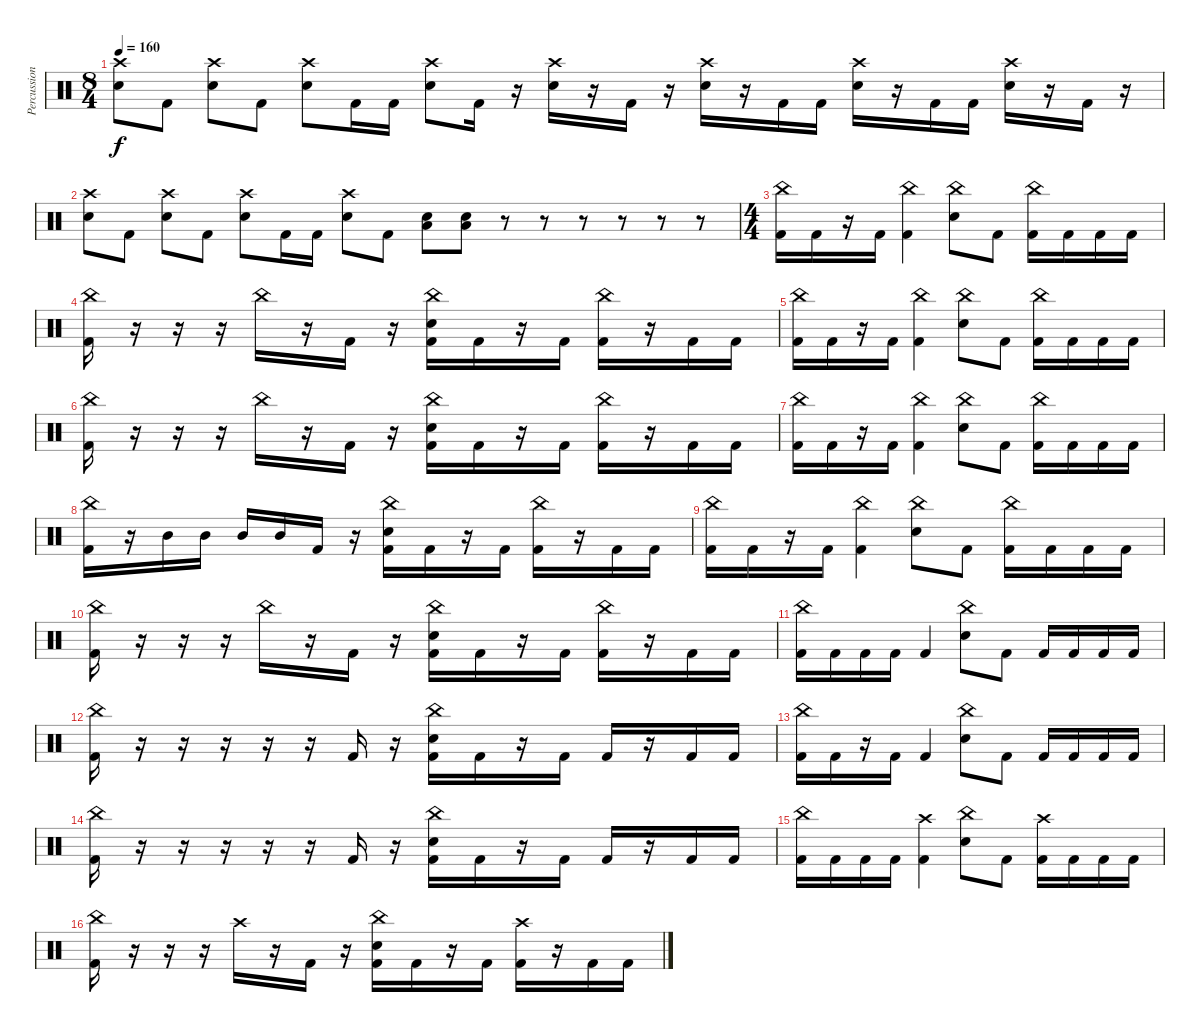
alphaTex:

\track ("Percussion" "Percussion") {instrument percussion}
\staff {score}
\articulation defaults
\ts (8 4)
\tempo 160
\clef neutral
\ks c
("Crash high (hit)" "Electric Snare (hit)").8{dy f} "Kick (hit) 2".8 ("Crash high (hit)" "Electric Snare (hit)").8 "Kick (hit) 2".8 ("Crash high (hit)" "Electric Snare (hit)").8 "Kick (hit) 2".16 "Kick (hit) 2".16 ("Crash high (hit)" "Electric Snare (hit)").8 "Kick (hit) 2".16 r.16 ("Crash high (hit)" "Electric Snare (hit)").16 r.16 "Kick (hit) 2".16 r.16 ("Crash high (hit)" "Electric Snare (hit)").16 r.16 "Kick (hit) 2".16 "Kick (hit) 2".16 ("Crash high (hit)" "Electric Snare (hit)").16 r.16 "Kick (hit) 2".16 "Kick (hit) 2".16 ("Crash high (hit)" "Electric Snare (hit)").16 r.16 "Kick (hit) 2".16 r.16 |
("Crash high (hit)" "Electric Snare (hit)").8 "Kick (hit) 2".8 ("Crash high (hit)" "Electric Snare (hit)").8 "Kick (hit) 2".8 ("Crash high (hit)" "Electric Snare (hit)").8 "Kick (hit) 2".16 "Kick (hit) 2".16 ("Crash high (hit)" "Electric Snare (hit)").8 "Kick (hit) 2".8 ("Electric Snare (hit)" "Low Tom (hit)").8 ("Electric Snare (hit)" "Low Tom (hit)").8 r.8 r.8 r.8 r.8 r.8 r.8 |
\ts (4 4)
("China (hit)" "Kick (hit) 2").16 "Kick (hit) 2".16 r.16 "Kick (hit) 2".16 ("China (hit)" "Kick (hit) 2").4 ("China (hit)" "Electric Snare (hit)").8 "Kick (hit) 2".8 ("China (hit)" "Kick (hit) 2").16 "Kick (hit) 2".16 "Kick (hit) 2".16 "Kick (hit) 2".16 |
("China (hit)" "Kick (hit) 2").16 r.16 r.16 r.16 "China (hit)".16 r.16 "Kick (hit) 2".16 r.16 ("China (hit)" "Electric Snare (hit)" "Kick (hit) 2").16 "Kick (hit) 2".16 r.16 "Kick (hit) 2".16 ("China (hit)" "Kick (hit) 2").16 r.16 "Kick (hit) 2".16 "Kick (hit) 2".16 |
("China (hit)" "Kick (hit) 2").16 "Kick (hit) 2".16 r.16 "Kick (hit) 2".16 ("China (hit)" "Kick (hit) 2").4 ("China (hit)" "Electric Snare (hit)").8 "Kick (hit) 2".8 ("China (hit)" "Kick (hit) 2").16 "Kick (hit) 2".16 "Kick (hit) 2".16 "Kick (hit) 2".16 |
("China (hit)" "Kick (hit) 2").16 r.16 r.16 r.16 "China (hit)".16 r.16 "Kick (hit) 2".16 r.16 ("China (hit)" "Electric Snare (hit)" "Kick (hit) 2").16 "Kick (hit) 2".16 r.16 "Kick (hit) 2".16 ("China (hit)" "Kick (hit) 2").16 r.16 "Kick (hit) 2".16 "Kick (hit) 2".16 |
("China (hit)" "Kick (hit) 2").16 "Kick (hit) 2".16 r.16 "Kick (hit) 2".16 ("China (hit)" "Kick (hit) 2").4 ("China (hit)" "Electric Snare (hit)").8 "Kick (hit) 2".8 ("China (hit)" "Kick (hit) 2").16 "Kick (hit) 2".16 "Kick (hit) 2".16 "Kick (hit) 2".16 |
("China (hit)" "Kick (hit) 2").16 r.16 "Mid Tom (hit)".16 "Mid Tom (hit)".16 "Mid Tom (hit)".16 "Mid Tom (hit)".16 "Kick (hit) 2".16 r.16 ("China (hit)" "Electric Snare (hit)" "Kick (hit) 2").16 "Kick (hit) 2".16 r.16 "Kick (hit) 2".16 ("China (hit)" "Kick (hit) 2").16 r.16 "Kick (hit) 2".16 "Kick (hit) 2".16 |
("China (hit)" "Kick (hit) 2").16 "Kick (hit) 2".16 r.16 "Kick (hit) 2".16 ("China (hit)" "Kick (hit) 2").4 ("China (hit)" "Electric Snare (hit)").8 "Kick (hit) 2".8 ("China (hit)" "Kick (hit) 2").16 "Kick (hit) 2".16 "Kick (hit) 2".16 "Kick (hit) 2".16 |
("China (hit)" "Kick (hit) 2").16 r.16 r.16 r.16 "China (hit)".16 r.16 "Kick (hit) 2".16 r.16 ("China (hit)" "Electric Snare (hit)" "Kick (hit) 2").16 "Kick (hit) 2".16 r.16 "Kick (hit) 2".16 ("China (hit)" "Kick (hit) 2").16 r.16 "Kick (hit) 2".16 "Kick (hit) 2".16 |
("China (hit)" "Kick (hit) 2").16 "Kick (hit) 2".16 "Kick (hit) 2".16 "Kick (hit) 2".16 "Kick (hit) 2".4 ("China (hit)" "Electric Snare (hit)").8 "Kick (hit) 2".8 "Kick (hit) 2".16 "Kick (hit) 2".16 "Kick (hit) 2".16 "Kick (hit) 2".16 |
("China (hit)" "Kick (hit) 2").16 r.16 r.16 r.16 r.16 r.16 "Kick (hit) 2".16 r.16 ("China (hit)" "Electric Snare (hit)" "Kick (hit) 2").16 "Kick (hit) 2".16 r.16 "Kick (hit) 2".16 "Kick (hit) 2".16 r.16 "Kick (hit) 2".16 "Kick (hit) 2".16 |
("China (hit)" "Kick (hit) 2").16 "Kick (hit) 2".16 r.16 "Kick (hit) 2".16 "Kick (hit) 2".4 ("China (hit)" "Electric Snare (hit)").8 "Kick (hit) 2".8 "Kick (hit) 2".16 "Kick (hit) 2".16 "Kick (hit) 2".16 "Kick (hit) 2".16 |
("China (hit)" "Kick (hit) 2").16 r.16 r.16 r.16 r.16 r.16 "Kick (hit) 2".16 r.16 ("China (hit)" "Electric Snare (hit)" "Kick (hit) 2").16 "Kick (hit) 2".16 r.16 "Kick (hit) 2".16 "Kick (hit) 2".16 r.16 "Kick (hit) 2".16 "Kick (hit) 2".16 |
("China (hit)" "Kick (hit) 2").16 "Kick (hit) 2".16 "Kick (hit) 2".16 "Kick (hit) 2".16 ("Crash high (hit)" "Kick (hit) 2").4 ("China (hit)" "Electric Snare (hit)").8 "Kick (hit) 2".8 ("Crash high (hit)" "Kick (hit) 2").16 "Kick (hit) 2".16 "Kick (hit) 2".16 "Kick (hit) 2".16 |
("China (hit)" "Kick (hit) 2").16 r.16 r.16 r.16 "Crash high (hit)".16 r.16 "Kick (hit) 2".16 r.16 ("China (hit)" "Electric Snare (hit)" "Kick (hit) 2").16 "Kick (hit) 2".16 r.16 "Kick (hit) 2".16 ("Crash high (hit)" "Kick (hit) 2").16 r.16 "Kick (hit) 2".16 "Kick (hit) 2".16
